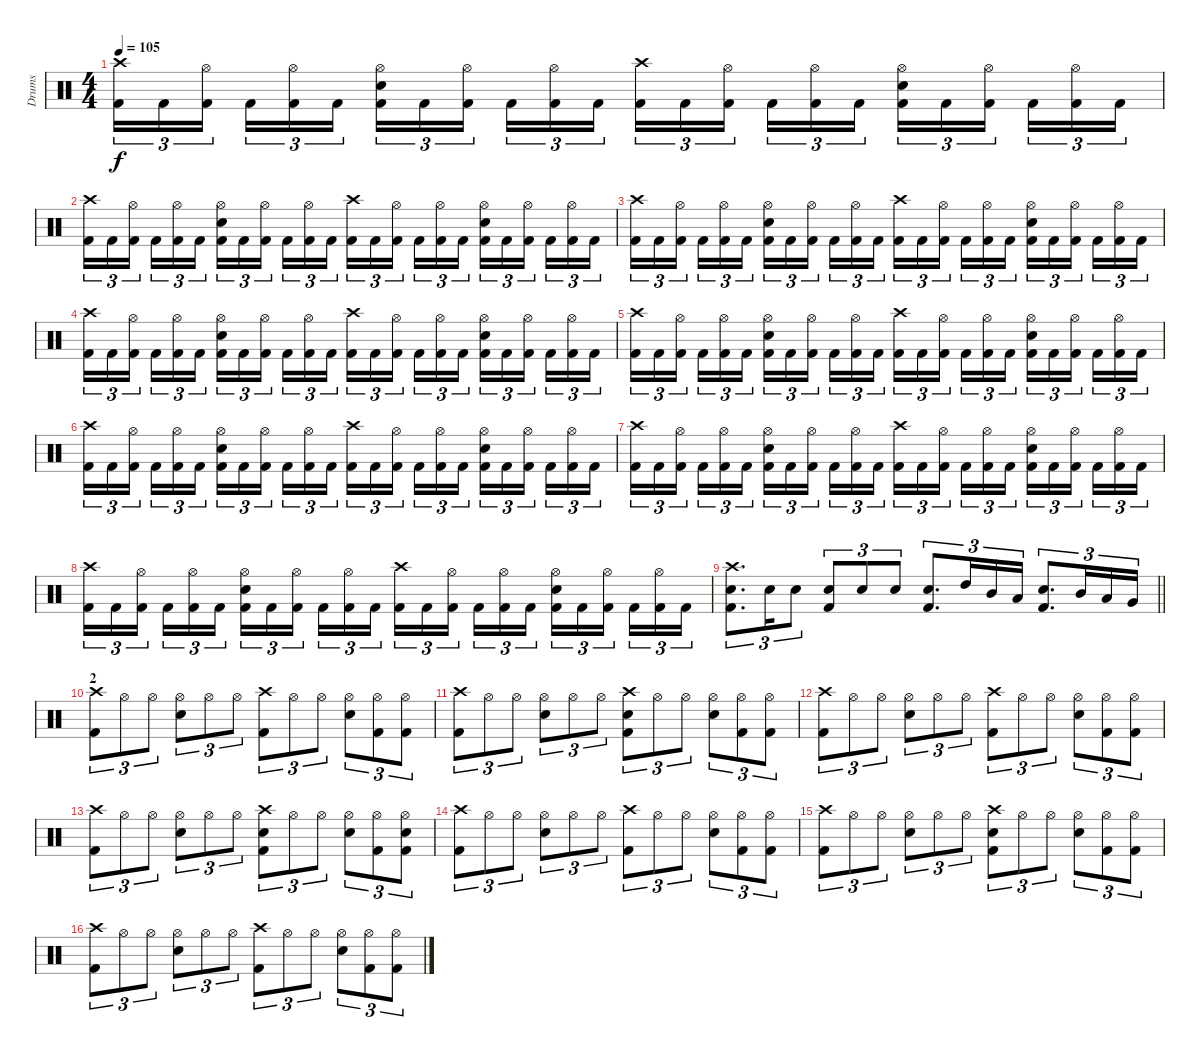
\track ("Drums" "Drums") {instrument percussion}
\staff {score}
\articulation defaults
\ts (4 4)
\tempo 105
\clef neutral
\ks c
("Crash high (hit)" "Kick (hit) 2").16{tu (3 2) dy f} "Kick (hit) 2".16{tu (3 2)} ("Hi-Hat (open)" "Kick (hit) 2").16{tu (3 2) beam splitsecondary} "Kick (hit) 2".16{tu (3 2)} ("Hi-Hat (open)" "Kick (hit) 2").16{tu (3 2)} "Kick (hit) 2".16{tu (3 2)} ("Hi-Hat (open)" "Electric Snare (hit)" "Kick (hit) 2").16{tu (3 2)} "Kick (hit) 2".16{tu (3 2)} ("Hi-Hat (open)" "Kick (hit) 2").16{tu (3 2) beam splitsecondary} "Kick (hit) 2".16{tu (3 2)} ("Hi-Hat (open)" "Kick (hit) 2").16{tu (3 2)} "Kick (hit) 2".16{tu (3 2)} ("Crash high (hit)" "Kick (hit) 2").16{tu (3 2)} "Kick (hit) 2".16{tu (3 2)} ("Hi-Hat (open)" "Kick (hit) 2").16{tu (3 2) beam splitsecondary} "Kick (hit) 2".16{tu (3 2)} ("Hi-Hat (open)" "Kick (hit) 2").16{tu (3 2)} "Kick (hit) 2".16{tu (3 2)} ("Hi-Hat (open)" "Electric Snare (hit)" "Kick (hit) 2").16{tu (3 2)} "Kick (hit) 2".16{tu (3 2)} ("Hi-Hat (open)" "Kick (hit) 2").16{tu (3 2) beam splitsecondary} "Kick (hit) 2".16{tu (3 2)} ("Hi-Hat (open)" "Kick (hit) 2").16{tu (3 2)} "Kick (hit) 2".16{tu (3 2)} |
("Crash high (hit)" "Kick (hit) 2").16{tu (3 2)} "Kick (hit) 2".16{tu (3 2)} ("Hi-Hat (open)" "Kick (hit) 2").16{tu (3 2) beam splitsecondary} "Kick (hit) 2".16{tu (3 2)} ("Hi-Hat (open)" "Kick (hit) 2").16{tu (3 2)} "Kick (hit) 2".16{tu (3 2)} ("Hi-Hat (open)" "Electric Snare (hit)" "Kick (hit) 2").16{tu (3 2)} "Kick (hit) 2".16{tu (3 2)} ("Hi-Hat (open)" "Kick (hit) 2").16{tu (3 2) beam splitsecondary} "Kick (hit) 2".16{tu (3 2)} ("Hi-Hat (open)" "Kick (hit) 2").16{tu (3 2)} "Kick (hit) 2".16{tu (3 2)} ("Crash high (hit)" "Kick (hit) 2").16{tu (3 2)} "Kick (hit) 2".16{tu (3 2)} ("Hi-Hat (open)" "Kick (hit) 2").16{tu (3 2) beam splitsecondary} "Kick (hit) 2".16{tu (3 2)} ("Hi-Hat (open)" "Kick (hit) 2").16{tu (3 2)} "Kick (hit) 2".16{tu (3 2)} ("Hi-Hat (open)" "Electric Snare (hit)" "Kick (hit) 2").16{tu (3 2)} "Kick (hit) 2".16{tu (3 2)} ("Hi-Hat (open)" "Kick (hit) 2").16{tu (3 2) beam splitsecondary} "Kick (hit) 2".16{tu (3 2)} ("Hi-Hat (open)" "Kick (hit) 2").16{tu (3 2)} "Kick (hit) 2".16{tu (3 2)} |
("Crash high (hit)" "Kick (hit) 2").16{tu (3 2)} "Kick (hit) 2".16{tu (3 2)} ("Hi-Hat (open)" "Kick (hit) 2").16{tu (3 2) beam splitsecondary} "Kick (hit) 2".16{tu (3 2)} ("Hi-Hat (open)" "Kick (hit) 2").16{tu (3 2)} "Kick (hit) 2".16{tu (3 2)} ("Hi-Hat (open)" "Electric Snare (hit)" "Kick (hit) 2").16{tu (3 2)} "Kick (hit) 2".16{tu (3 2)} ("Hi-Hat (open)" "Kick (hit) 2").16{tu (3 2) beam splitsecondary} "Kick (hit) 2".16{tu (3 2)} ("Hi-Hat (open)" "Kick (hit) 2").16{tu (3 2)} "Kick (hit) 2".16{tu (3 2)} ("Crash high (hit)" "Kick (hit) 2").16{tu (3 2)} "Kick (hit) 2".16{tu (3 2)} ("Hi-Hat (open)" "Kick (hit) 2").16{tu (3 2) beam splitsecondary} "Kick (hit) 2".16{tu (3 2)} ("Hi-Hat (open)" "Kick (hit) 2").16{tu (3 2)} "Kick (hit) 2".16{tu (3 2)} ("Hi-Hat (open)" "Electric Snare (hit)" "Kick (hit) 2").16{tu (3 2)} "Kick (hit) 2".16{tu (3 2)} ("Hi-Hat (open)" "Kick (hit) 2").16{tu (3 2) beam splitsecondary} "Kick (hit) 2".16{tu (3 2)} ("Hi-Hat (open)" "Kick (hit) 2").16{tu (3 2)} "Kick (hit) 2".16{tu (3 2)} |
("Crash high (hit)" "Kick (hit) 2").16{tu (3 2)} "Kick (hit) 2".16{tu (3 2)} ("Hi-Hat (open)" "Kick (hit) 2").16{tu (3 2) beam splitsecondary} "Kick (hit) 2".16{tu (3 2)} ("Hi-Hat (open)" "Kick (hit) 2").16{tu (3 2)} "Kick (hit) 2".16{tu (3 2)} ("Hi-Hat (open)" "Electric Snare (hit)" "Kick (hit) 2").16{tu (3 2)} "Kick (hit) 2".16{tu (3 2)} ("Hi-Hat (open)" "Kick (hit) 2").16{tu (3 2) beam splitsecondary} "Kick (hit) 2".16{tu (3 2)} ("Hi-Hat (open)" "Kick (hit) 2").16{tu (3 2)} "Kick (hit) 2".16{tu (3 2)} ("Crash high (hit)" "Kick (hit) 2").16{tu (3 2)} "Kick (hit) 2".16{tu (3 2)} ("Hi-Hat (open)" "Kick (hit) 2").16{tu (3 2) beam splitsecondary} "Kick (hit) 2".16{tu (3 2)} ("Hi-Hat (open)" "Kick (hit) 2").16{tu (3 2)} "Kick (hit) 2".16{tu (3 2)} ("Hi-Hat (open)" "Electric Snare (hit)" "Kick (hit) 2").16{tu (3 2)} "Kick (hit) 2".16{tu (3 2)} ("Hi-Hat (open)" "Kick (hit) 2").16{tu (3 2) beam splitsecondary} "Kick (hit) 2".16{tu (3 2)} ("Hi-Hat (open)" "Kick (hit) 2").16{tu (3 2)} "Kick (hit) 2".16{tu (3 2)} |
("Crash high (hit)" "Kick (hit) 2").16{tu (3 2)} "Kick (hit) 2".16{tu (3 2)} ("Hi-Hat (open)" "Kick (hit) 2").16{tu (3 2) beam splitsecondary} "Kick (hit) 2".16{tu (3 2)} ("Hi-Hat (open)" "Kick (hit) 2").16{tu (3 2)} "Kick (hit) 2".16{tu (3 2)} ("Hi-Hat (open)" "Electric Snare (hit)" "Kick (hit) 2").16{tu (3 2)} "Kick (hit) 2".16{tu (3 2)} ("Hi-Hat (open)" "Kick (hit) 2").16{tu (3 2) beam splitsecondary} "Kick (hit) 2".16{tu (3 2)} ("Hi-Hat (open)" "Kick (hit) 2").16{tu (3 2)} "Kick (hit) 2".16{tu (3 2)} ("Crash high (hit)" "Kick (hit) 2").16{tu (3 2)} "Kick (hit) 2".16{tu (3 2)} ("Hi-Hat (open)" "Kick (hit) 2").16{tu (3 2) beam splitsecondary} "Kick (hit) 2".16{tu (3 2)} ("Hi-Hat (open)" "Kick (hit) 2").16{tu (3 2)} "Kick (hit) 2".16{tu (3 2)} ("Hi-Hat (open)" "Electric Snare (hit)" "Kick (hit) 2").16{tu (3 2)} "Kick (hit) 2".16{tu (3 2)} ("Hi-Hat (open)" "Kick (hit) 2").16{tu (3 2) beam splitsecondary} "Kick (hit) 2".16{tu (3 2)} ("Hi-Hat (open)" "Kick (hit) 2").16{tu (3 2)} "Kick (hit) 2".16{tu (3 2)} |
("Crash high (hit)" "Kick (hit) 2").16{tu (3 2)} "Kick (hit) 2".16{tu (3 2)} ("Hi-Hat (open)" "Kick (hit) 2").16{tu (3 2) beam splitsecondary} "Kick (hit) 2".16{tu (3 2)} ("Hi-Hat (open)" "Kick (hit) 2").16{tu (3 2)} "Kick (hit) 2".16{tu (3 2)} ("Hi-Hat (open)" "Electric Snare (hit)" "Kick (hit) 2").16{tu (3 2)} "Kick (hit) 2".16{tu (3 2)} ("Hi-Hat (open)" "Kick (hit) 2").16{tu (3 2) beam splitsecondary} "Kick (hit) 2".16{tu (3 2)} ("Hi-Hat (open)" "Kick (hit) 2").16{tu (3 2)} "Kick (hit) 2".16{tu (3 2)} ("Crash high (hit)" "Kick (hit) 2").16{tu (3 2)} "Kick (hit) 2".16{tu (3 2)} ("Hi-Hat (open)" "Kick (hit) 2").16{tu (3 2) beam splitsecondary} "Kick (hit) 2".16{tu (3 2)} ("Hi-Hat (open)" "Kick (hit) 2").16{tu (3 2)} "Kick (hit) 2".16{tu (3 2)} ("Hi-Hat (open)" "Electric Snare (hit)" "Kick (hit) 2").16{tu (3 2)} "Kick (hit) 2".16{tu (3 2)} ("Hi-Hat (open)" "Kick (hit) 2").16{tu (3 2) beam splitsecondary} "Kick (hit) 2".16{tu (3 2)} ("Hi-Hat (open)" "Kick (hit) 2").16{tu (3 2)} "Kick (hit) 2".16{tu (3 2)} |
("Crash high (hit)" "Kick (hit) 2").16{tu (3 2)} "Kick (hit) 2".16{tu (3 2)} ("Hi-Hat (open)" "Kick (hit) 2").16{tu (3 2) beam splitsecondary} "Kick (hit) 2".16{tu (3 2)} ("Hi-Hat (open)" "Kick (hit) 2").16{tu (3 2)} "Kick (hit) 2".16{tu (3 2)} ("Hi-Hat (open)" "Electric Snare (hit)" "Kick (hit) 2").16{tu (3 2)} "Kick (hit) 2".16{tu (3 2)} ("Hi-Hat (open)" "Kick (hit) 2").16{tu (3 2) beam splitsecondary} "Kick (hit) 2".16{tu (3 2)} ("Hi-Hat (open)" "Kick (hit) 2").16{tu (3 2)} "Kick (hit) 2".16{tu (3 2)} ("Crash high (hit)" "Kick (hit) 2").16{tu (3 2)} "Kick (hit) 2".16{tu (3 2)} ("Hi-Hat (open)" "Kick (hit) 2").16{tu (3 2) beam splitsecondary} "Kick (hit) 2".16{tu (3 2)} ("Hi-Hat (open)" "Kick (hit) 2").16{tu (3 2)} "Kick (hit) 2".16{tu (3 2)} ("Hi-Hat (open)" "Electric Snare (hit)" "Kick (hit) 2").16{tu (3 2)} "Kick (hit) 2".16{tu (3 2)} ("Hi-Hat (open)" "Kick (hit) 2").16{tu (3 2) beam splitsecondary} "Kick (hit) 2".16{tu (3 2)} ("Hi-Hat (open)" "Kick (hit) 2").16{tu (3 2)} "Kick (hit) 2".16{tu (3 2)} |
("Crash high (hit)" "Kick (hit) 2").16{tu (3 2)} "Kick (hit) 2".16{tu (3 2)} ("Hi-Hat (open)" "Kick (hit) 2").16{tu (3 2) beam splitsecondary} "Kick (hit) 2".16{tu (3 2)} ("Hi-Hat (open)" "Kick (hit) 2").16{tu (3 2)} "Kick (hit) 2".16{tu (3 2)} ("Hi-Hat (open)" "Electric Snare (hit)" "Kick (hit) 2").16{tu (3 2)} "Kick (hit) 2".16{tu (3 2)} ("Hi-Hat (open)" "Kick (hit) 2").16{tu (3 2) beam splitsecondary} "Kick (hit) 2".16{tu (3 2)} ("Hi-Hat (open)" "Kick (hit) 2").16{tu (3 2)} "Kick (hit) 2".16{tu (3 2)} ("Crash high (hit)" "Kick (hit) 2").16{tu (3 2)} "Kick (hit) 2".16{tu (3 2)} ("Hi-Hat (open)" "Kick (hit) 2").16{tu (3 2) beam splitsecondary} "Kick (hit) 2".16{tu (3 2)} ("Hi-Hat (open)" "Kick (hit) 2").16{tu (3 2)} "Kick (hit) 2".16{tu (3 2)} ("Hi-Hat (open)" "Electric Snare (hit)" "Kick (hit) 2").16{tu (3 2)} "Kick (hit) 2".16{tu (3 2)} ("Hi-Hat (open)" "Kick (hit) 2").16{tu (3 2) beam splitsecondary} "Kick (hit) 2".16{tu (3 2)} ("Hi-Hat (open)" "Kick (hit) 2").16{tu (3 2)} "Kick (hit) 2".16{tu (3 2)} |
\barLineRight lightlight
("Crash high (hit)" "Electric Snare (hit)" "Kick (hit) 2").8{d tu (3 2)} "Electric Snare (hit)".16{tu (3 2)} "Electric Snare (hit)".8{tu (3 2)} ("Electric Snare (hit)" "Kick (hit) 2").8{tu (3 2)} "Electric Snare (hit)".8{tu (3 2)} "Electric Snare (hit)".8{tu (3 2)} ("Electric Snare (hit)" "Kick (hit) 2").8{d tu (3 2)} "High Tom (hit)".16{tu (3 2)} "Mid Tom (hit)".16{tu (3 2)} "Low Tom (hit)".16{tu (3 2)} ("Electric Snare (hit)" "Kick (hit) 2").8{d tu (3 2)} "Mid Tom (hit)".16{tu (3 2)} "Low Tom (hit)".16{tu (3 2)} "Very Low Tom (hit)".16{tu (3 2)} |
\section ("" "2")
("Crash high (hit)" "Kick (hit) 2").8{tu (3 2)} "Hi-Hat (open)".8{tu (3 2)} "Hi-Hat (open)".8{tu (3 2)} ("Hi-Hat (open)" "Electric Snare (hit)").8{tu (3 2)} "Hi-Hat (open)".8{tu (3 2)} "Hi-Hat (open)".8{tu (3 2)} ("Crash high (hit)" "Kick (hit) 2").8{tu (3 2)} "Hi-Hat (open)".8{tu (3 2)} "Hi-Hat (open)".8{tu (3 2)} ("Hi-Hat (open)" "Electric Snare (hit)").8{tu (3 2)} ("Hi-Hat (open)" "Kick (hit) 2").8{tu (3 2)} ("Hi-Hat (open)" "Kick (hit) 2").8{tu (3 2)} |
("Crash high (hit)" "Kick (hit) 2").8{tu (3 2)} "Hi-Hat (open)".8{tu (3 2)} "Hi-Hat (open)".8{tu (3 2)} ("Hi-Hat (open)" "Electric Snare (hit)").8{tu (3 2)} "Hi-Hat (open)".8{tu (3 2)} "Hi-Hat (open)".8{tu (3 2)} ("Crash high (hit)" "Electric Snare (hit)" "Kick (hit) 2").8{tu (3 2)} "Hi-Hat (open)".8{tu (3 2)} "Hi-Hat (open)".8{tu (3 2)} ("Hi-Hat (open)" "Electric Snare (hit)").8{tu (3 2)} ("Hi-Hat (open)" "Kick (hit) 2").8{tu (3 2)} ("Hi-Hat (open)" "Kick (hit) 2").8{tu (3 2)} |
("Crash high (hit)" "Kick (hit) 2").8{tu (3 2)} "Hi-Hat (open)".8{tu (3 2)} "Hi-Hat (open)".8{tu (3 2)} ("Hi-Hat (open)" "Electric Snare (hit)").8{tu (3 2)} "Hi-Hat (open)".8{tu (3 2)} "Hi-Hat (open)".8{tu (3 2)} ("Crash high (hit)" "Kick (hit) 2").8{tu (3 2)} "Hi-Hat (open)".8{tu (3 2)} "Hi-Hat (open)".8{tu (3 2)} ("Hi-Hat (open)" "Electric Snare (hit)").8{tu (3 2)} ("Hi-Hat (open)" "Kick (hit) 2").8{tu (3 2)} ("Hi-Hat (open)" "Kick (hit) 2").8{tu (3 2)} |
("Crash high (hit)" "Kick (hit) 2").8{tu (3 2)} "Hi-Hat (open)".8{tu (3 2)} "Hi-Hat (open)".8{tu (3 2)} ("Hi-Hat (open)" "Electric Snare (hit)").8{tu (3 2)} "Hi-Hat (open)".8{tu (3 2)} "Hi-Hat (open)".8{tu (3 2)} ("Crash high (hit)" "Electric Snare (hit)" "Kick (hit) 2").8{tu (3 2)} "Hi-Hat (open)".8{tu (3 2)} "Hi-Hat (open)".8{tu (3 2)} ("Hi-Hat (open)" "Electric Snare (hit)").8{tu (3 2)} ("Hi-Hat (open)" "Kick (hit) 2").8{tu (3 2)} ("Hi-Hat (open)" "Electric Snare (hit)" "Kick (hit) 2").8{tu (3 2)} |
("Crash high (hit)" "Kick (hit) 2").8{tu (3 2)} "Hi-Hat (open)".8{tu (3 2)} "Hi-Hat (open)".8{tu (3 2)} ("Hi-Hat (open)" "Electric Snare (hit)").8{tu (3 2)} "Hi-Hat (open)".8{tu (3 2)} "Hi-Hat (open)".8{tu (3 2)} ("Crash high (hit)" "Kick (hit) 2").8{tu (3 2)} "Hi-Hat (open)".8{tu (3 2)} "Hi-Hat (open)".8{tu (3 2)} ("Hi-Hat (open)" "Electric Snare (hit)").8{tu (3 2)} ("Hi-Hat (open)" "Kick (hit) 2").8{tu (3 2)} ("Hi-Hat (open)" "Kick (hit) 2").8{tu (3 2)} |
("Crash high (hit)" "Kick (hit) 2").8{tu (3 2)} "Hi-Hat (open)".8{tu (3 2)} "Hi-Hat (open)".8{tu (3 2)} ("Hi-Hat (open)" "Electric Snare (hit)").8{tu (3 2)} "Hi-Hat (open)".8{tu (3 2)} "Hi-Hat (open)".8{tu (3 2)} ("Crash high (hit)" "Electric Snare (hit)" "Kick (hit) 2").8{tu (3 2)} "Hi-Hat (open)".8{tu (3 2)} "Hi-Hat (open)".8{tu (3 2)} ("Hi-Hat (open)" "Electric Snare (hit)").8{tu (3 2)} ("Hi-Hat (open)" "Kick (hit) 2").8{tu (3 2)} ("Hi-Hat (open)" "Kick (hit) 2").8{tu (3 2)} |
("Crash high (hit)" "Kick (hit) 2").8{tu (3 2)} "Hi-Hat (open)".8{tu (3 2)} "Hi-Hat (open)".8{tu (3 2)} ("Hi-Hat (open)" "Electric Snare (hit)").8{tu (3 2)} "Hi-Hat (open)".8{tu (3 2)} "Hi-Hat (open)".8{tu (3 2)} ("Crash high (hit)" "Kick (hit) 2").8{tu (3 2)} "Hi-Hat (open)".8{tu (3 2)} "Hi-Hat (open)".8{tu (3 2)} ("Hi-Hat (open)" "Electric Snare (hit)").8{tu (3 2)} ("Hi-Hat (open)" "Kick (hit) 2").8{tu (3 2)} ("Hi-Hat (open)" "Kick (hit) 2").8{tu (3 2)}
